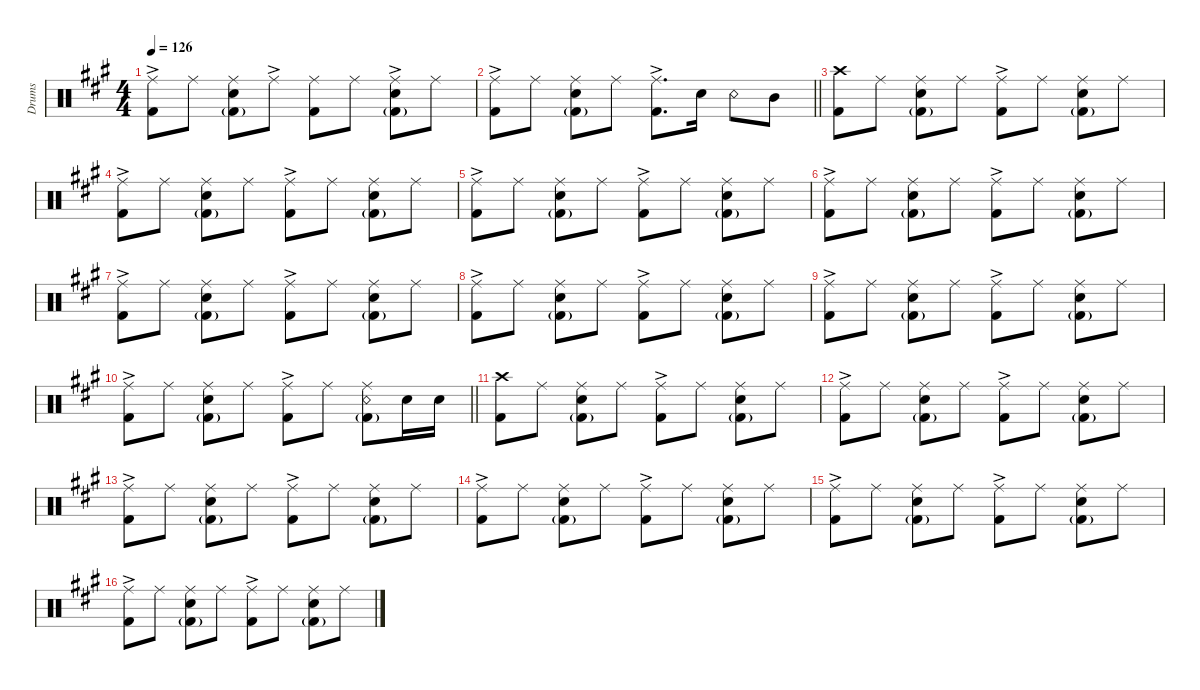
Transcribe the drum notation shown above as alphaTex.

\hideDynamics
\bracketExtendMode groupsimilarinstruments
\otherSystemsTrackNameOrientation horizontal
\track ("Drumkit" "Drums") {defaultSystemsLayout 4 instrument percussion}
\staff {score}
\articulation defaults
\ts (4 4)
\tempo 126
\clef neutral
\ks a
("Ride (middle)"{ac acc forcenatural} "Kick (hit) 2"{acc forcenatural}).8{dy f beam Down} "Ride (middle)"{acc forcenatural}.8{beam Down} ("Ride (middle)"{acc forcenatural} "Snare (hit) 2"{acc forcenatural} "Kick (hit) 2"{g acc forcenatural}).8{beam Down} "Ride (middle)"{ac acc forcenatural}.8{beam Down} ("Ride (middle)"{acc forcenatural} "Kick (hit) 2"{acc forcenatural}).8{beam Down} "Ride (middle)"{acc forcenatural}.8{beam Down} ("Ride (middle)"{ac acc forcenatural} "Snare (hit) 2"{acc forcenatural} "Kick (hit) 2"{g acc forcenatural}).8{beam Down} "Ride (middle)"{acc forcenatural}.8{beam Down} |
\barLineRight lightlight
("Ride (middle)"{ac acc forcenatural} "Kick (hit) 2"{acc forcenatural}).8{beam Down} "Ride (middle)"{acc forcenatural}.8{beam Down} ("Ride (middle)"{acc forcenatural} "Snare (hit) 2"{acc forcenatural} "Kick (hit) 2"{g acc forcenatural}).8{beam Down} "Ride (middle)"{acc forcenatural}.8{beam Down} ("Ride (middle)"{ac acc forcenatural} "Kick (hit) 2"{acc forcenatural}).8{d beam Down} "Snare (hit) 2"{acc forcenatural}.16{beam Down} "Snare (rim shot)"{acc forcenatural}.8{beam Down} "Mid Tom (hit)"{acc forcenatural}.8{beam Down} |
("Crash high (hit)"{acc forcenatural} "Kick (hit) 2"{acc forcenatural}).8{beam Down} "Ride (middle)"{acc forcenatural}.8{beam Down} ("Ride (middle)"{acc forcenatural} "Snare (hit) 2"{acc forcenatural} "Kick (hit) 2"{g acc forcenatural}).8{beam Down} "Ride (middle)"{acc forcenatural}.8{beam Down} ("Ride (middle)"{ac acc forcenatural} "Kick (hit) 2"{acc forcenatural}).8{beam Down} "Ride (middle)"{acc forcenatural}.8{beam Down} ("Ride (middle)"{acc forcenatural} "Snare (hit) 2"{acc forcenatural} "Kick (hit) 2"{g acc forcenatural}).8{beam Down} "Ride (middle)"{acc forcenatural}.8{beam Down} |
("Ride (middle)"{ac acc forcenatural} "Kick (hit) 2"{acc forcenatural}).8{beam Down} "Ride (middle)"{acc forcenatural}.8{beam Down} ("Ride (middle)"{acc forcenatural} "Snare (hit) 2"{acc forcenatural} "Kick (hit) 2"{g acc forcenatural}).8{beam Down} "Ride (middle)"{acc forcenatural}.8{beam Down} ("Ride (middle)"{ac acc forcenatural} "Kick (hit) 2"{acc forcenatural}).8{beam Down} "Ride (middle)"{acc forcenatural}.8{beam Down} ("Ride (middle)"{acc forcenatural} "Snare (hit) 2"{acc forcenatural} "Kick (hit) 2"{g acc forcenatural}).8{beam Down} "Ride (middle)"{acc forcenatural}.8{beam Down} |
("Ride (middle)"{ac acc forcenatural} "Kick (hit) 2"{acc forcenatural}).8{beam Down} "Ride (middle)"{acc forcenatural}.8{beam Down} ("Ride (middle)"{acc forcenatural} "Snare (hit) 2"{acc forcenatural} "Kick (hit) 2"{g acc forcenatural}).8{beam Down} "Ride (middle)"{acc forcenatural}.8{beam Down} ("Ride (middle)"{ac acc forcenatural} "Kick (hit) 2"{acc forcenatural}).8{beam Down} "Ride (middle)"{acc forcenatural}.8{beam Down} ("Ride (middle)"{acc forcenatural} "Snare (hit) 2"{acc forcenatural} "Kick (hit) 2"{g acc forcenatural}).8{beam Down} "Ride (middle)"{acc forcenatural}.8{beam Down} |
("Ride (middle)"{ac acc forcenatural} "Kick (hit) 2"{acc forcenatural}).8{beam Down} "Ride (middle)"{acc forcenatural}.8{beam Down} ("Ride (middle)"{acc forcenatural} "Snare (hit) 2"{acc forcenatural} "Kick (hit) 2"{g acc forcenatural}).8{beam Down} "Ride (middle)"{acc forcenatural}.8{beam Down} ("Ride (middle)"{ac acc forcenatural} "Kick (hit) 2"{acc forcenatural}).8{beam Down} "Ride (middle)"{acc forcenatural}.8{beam Down} ("Ride (middle)"{acc forcenatural} "Snare (hit) 2"{acc forcenatural} "Kick (hit) 2"{g acc forcenatural}).8{beam Down} "Ride (middle)"{acc forcenatural}.8{beam Down} |
("Ride (middle)"{ac acc forcenatural} "Kick (hit) 2"{acc forcenatural}).8{beam Down} "Ride (middle)"{acc forcenatural}.8{beam Down} ("Ride (middle)"{acc forcenatural} "Snare (hit) 2"{acc forcenatural} "Kick (hit) 2"{g acc forcenatural}).8{beam Down} "Ride (middle)"{acc forcenatural}.8{beam Down} ("Ride (middle)"{ac acc forcenatural} "Kick (hit) 2"{acc forcenatural}).8{beam Down} "Ride (middle)"{acc forcenatural}.8{beam Down} ("Ride (middle)"{acc forcenatural} "Snare (hit) 2"{acc forcenatural} "Kick (hit) 2"{g acc forcenatural}).8{beam Down} "Ride (middle)"{acc forcenatural}.8{beam Down} |
("Ride (middle)"{ac acc forcenatural} "Kick (hit) 2"{acc forcenatural}).8{beam Down} "Ride (middle)"{acc forcenatural}.8{beam Down} ("Ride (middle)"{acc forcenatural} "Snare (hit) 2"{acc forcenatural} "Kick (hit) 2"{g acc forcenatural}).8{beam Down} "Ride (middle)"{acc forcenatural}.8{beam Down} ("Ride (middle)"{ac acc forcenatural} "Kick (hit) 2"{acc forcenatural}).8{beam Down} "Ride (middle)"{acc forcenatural}.8{beam Down} ("Ride (middle)"{acc forcenatural} "Snare (hit) 2"{acc forcenatural} "Kick (hit) 2"{g acc forcenatural}).8{beam Down} "Ride (middle)"{acc forcenatural}.8{beam Down} |
("Ride (middle)"{ac acc forcenatural} "Kick (hit) 2"{acc forcenatural}).8{beam Down} "Ride (middle)"{acc forcenatural}.8{beam Down} ("Ride (middle)"{acc forcenatural} "Snare (hit) 2"{acc forcenatural} "Kick (hit) 2"{g acc forcenatural}).8{beam Down} "Ride (middle)"{acc forcenatural}.8{beam Down} ("Ride (middle)"{ac acc forcenatural} "Kick (hit) 2"{acc forcenatural}).8{beam Down} "Ride (middle)"{acc forcenatural}.8{beam Down} ("Ride (middle)"{acc forcenatural} "Snare (hit) 2"{acc forcenatural} "Kick (hit) 2"{g acc forcenatural}).8{beam Down} "Ride (middle)"{acc forcenatural}.8{beam Down} |
\barLineRight lightlight
("Ride (middle)"{ac acc forcenatural} "Kick (hit) 2"{acc forcenatural}).8{beam Down} "Ride (middle)"{acc forcenatural}.8{beam Down} ("Ride (middle)"{acc forcenatural} "Snare (hit) 2"{acc forcenatural} "Kick (hit) 2"{g acc forcenatural}).8{beam Down} "Ride (middle)"{acc forcenatural}.8{beam Down} ("Ride (middle)"{ac acc forcenatural} "Kick (hit) 2"{acc forcenatural}).8{beam Down} "Ride (middle)"{acc forcenatural}.8{beam Down} ("Ride (middle)"{acc forcenatural} "Snare (rim shot)"{acc forcenatural} "Kick (hit) 2"{g acc forcenatural}).8{beam Down} "Snare (hit) 2"{acc forcenatural}.16{beam Down} "Snare (hit) 2"{acc forcenatural}.16{beam Down} |
("Crash high (hit)"{acc forcenatural} "Kick (hit) 2"{acc forcenatural}).8{beam Down} "Ride (middle)"{acc forcenatural}.8{beam Down} ("Ride (middle)"{acc forcenatural} "Snare (hit) 2"{acc forcenatural} "Kick (hit) 2"{g acc forcenatural}).8{beam Down} "Ride (middle)"{acc forcenatural}.8{beam Down} ("Ride (middle)"{ac acc forcenatural} "Kick (hit) 2"{acc forcenatural}).8{beam Down} "Ride (middle)"{acc forcenatural}.8{beam Down} ("Ride (middle)"{acc forcenatural} "Snare (hit) 2"{acc forcenatural} "Kick (hit) 2"{g acc forcenatural}).8{beam Down} "Ride (middle)"{acc forcenatural}.8{beam Down} |
("Ride (middle)"{ac acc forcenatural} "Kick (hit) 2"{acc forcenatural}).8{beam Down} "Ride (middle)"{acc forcenatural}.8{beam Down} ("Ride (middle)"{acc forcenatural} "Snare (hit) 2"{acc forcenatural} "Kick (hit) 2"{g acc forcenatural}).8{beam Down} "Ride (middle)"{acc forcenatural}.8{beam Down} ("Ride (middle)"{ac acc forcenatural} "Kick (hit) 2"{acc forcenatural}).8{beam Down} "Ride (middle)"{acc forcenatural}.8{beam Down} ("Ride (middle)"{acc forcenatural} "Snare (hit) 2"{acc forcenatural} "Kick (hit) 2"{g acc forcenatural}).8{beam Down} "Ride (middle)"{acc forcenatural}.8{beam Down} |
("Ride (middle)"{ac acc forcenatural} "Kick (hit) 2"{acc forcenatural}).8{beam Down} "Ride (middle)"{acc forcenatural}.8{beam Down} ("Ride (middle)"{acc forcenatural} "Snare (hit) 2"{acc forcenatural} "Kick (hit) 2"{g acc forcenatural}).8{beam Down} "Ride (middle)"{acc forcenatural}.8{beam Down} ("Ride (middle)"{ac acc forcenatural} "Kick (hit) 2"{acc forcenatural}).8{beam Down} "Ride (middle)"{acc forcenatural}.8{beam Down} ("Ride (middle)"{acc forcenatural} "Snare (hit) 2"{acc forcenatural} "Kick (hit) 2"{g acc forcenatural}).8{beam Down} "Ride (middle)"{acc forcenatural}.8{beam Down} |
("Ride (middle)"{ac acc forcenatural} "Kick (hit) 2"{acc forcenatural}).8{beam Down} "Ride (middle)"{acc forcenatural}.8{beam Down} ("Ride (middle)"{acc forcenatural} "Snare (hit) 2"{acc forcenatural} "Kick (hit) 2"{g acc forcenatural}).8{beam Down} "Ride (middle)"{acc forcenatural}.8{beam Down} ("Ride (middle)"{ac acc forcenatural} "Kick (hit) 2"{acc forcenatural}).8{beam Down} "Ride (middle)"{acc forcenatural}.8{beam Down} ("Ride (middle)"{acc forcenatural} "Snare (hit) 2"{acc forcenatural} "Kick (hit) 2"{g acc forcenatural}).8{beam Down} "Ride (middle)"{acc forcenatural}.8{beam Down} |
("Ride (middle)"{ac acc forcenatural} "Kick (hit) 2"{acc forcenatural}).8{beam Down} "Ride (middle)"{acc forcenatural}.8{beam Down} ("Ride (middle)"{acc forcenatural} "Snare (hit) 2"{acc forcenatural} "Kick (hit) 2"{g acc forcenatural}).8{beam Down} "Ride (middle)"{acc forcenatural}.8{beam Down} ("Ride (middle)"{ac acc forcenatural} "Kick (hit) 2"{acc forcenatural}).8{beam Down} "Ride (middle)"{acc forcenatural}.8{beam Down} ("Ride (middle)"{acc forcenatural} "Snare (hit) 2"{acc forcenatural} "Kick (hit) 2"{g acc forcenatural}).8{beam Down} "Ride (middle)"{acc forcenatural}.8{beam Down} |
("Ride (middle)"{ac acc forcenatural} "Kick (hit) 2"{acc forcenatural}).8{beam Down} "Ride (middle)"{acc forcenatural}.8{beam Down} ("Ride (middle)"{acc forcenatural} "Snare (hit) 2"{acc forcenatural} "Kick (hit) 2"{g acc forcenatural}).8{beam Down} "Ride (middle)"{acc forcenatural}.8{beam Down} ("Ride (middle)"{ac acc forcenatural} "Kick (hit) 2"{acc forcenatural}).8{beam Down} "Ride (middle)"{acc forcenatural}.8{beam Down} ("Ride (middle)"{acc forcenatural} "Snare (hit) 2"{acc forcenatural} "Kick (hit) 2"{g acc forcenatural}).8{beam Down} "Ride (middle)"{acc forcenatural}.8{beam Down}
